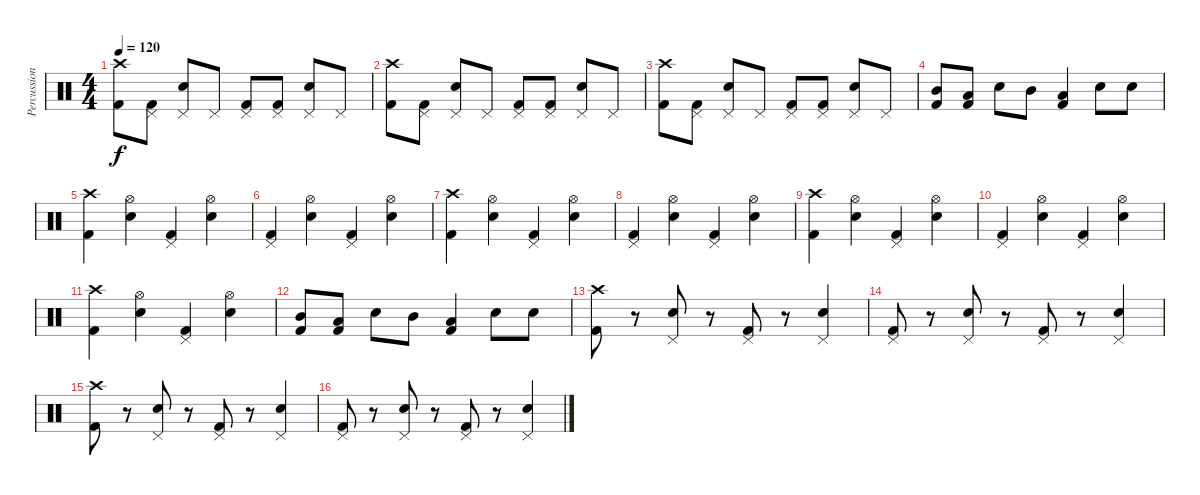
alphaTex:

\track ("Percussions" "Percussion") {instrument percussion}
\staff {score}
\articulation defaults
\ts (4 4)
\tempo 120
\clef neutral
\ks c
("Crash high (hit)" "Kick (hit) 2").8{dy f} ("Pedal Hi-Hat (hit)" "Kick (hit) 2").8 ("Pedal Hi-Hat (hit)" "Snare (hit) 2").8 "Pedal Hi-Hat (hit)".8 ("Pedal Hi-Hat (hit)" "Kick (hit) 2").8 ("Pedal Hi-Hat (hit)" "Kick (hit) 2").8 ("Pedal Hi-Hat (hit)" "Snare (hit) 2").8 "Pedal Hi-Hat (hit)".8 |
("Crash high (hit)" "Kick (hit) 2").8 ("Pedal Hi-Hat (hit)" "Kick (hit) 2").8 ("Pedal Hi-Hat (hit)" "Snare (hit) 2").8 "Pedal Hi-Hat (hit)".8 ("Pedal Hi-Hat (hit)" "Kick (hit) 2").8 ("Pedal Hi-Hat (hit)" "Kick (hit) 2").8 ("Pedal Hi-Hat (hit)" "Snare (hit) 2").8 "Pedal Hi-Hat (hit)".8 |
("Crash high (hit)" "Kick (hit) 2").8 ("Pedal Hi-Hat (hit)" "Kick (hit) 2").8 ("Pedal Hi-Hat (hit)" "Snare (hit) 2").8 "Pedal Hi-Hat (hit)".8 ("Pedal Hi-Hat (hit)" "Kick (hit) 2").8 ("Pedal Hi-Hat (hit)" "Kick (hit) 2").8 ("Pedal Hi-Hat (hit)" "Snare (hit) 2").8 "Pedal Hi-Hat (hit)".8 |
("Mid Tom (hit)" "Kick (hit) 2").8 ("Low Tom (hit)" "Kick (hit) 2").8 "Snare (hit) 2".8 "Mid Tom (hit)".8 ("Low Tom (hit)" "Kick (hit) 2").4 "Snare (hit) 2".8 "Snare (hit) 2".8 |
("Crash high (hit)" "Kick (hit) 2").4 ("Hi-Hat (open)" "Snare (hit) 2").4 ("Pedal Hi-Hat (hit)" "Kick (hit) 2").4 ("Hi-Hat (open)" "Snare (hit) 2").4 |
("Pedal Hi-Hat (hit)" "Kick (hit) 2").4 ("Hi-Hat (open)" "Snare (hit) 2").4 ("Pedal Hi-Hat (hit)" "Kick (hit) 2").4 ("Hi-Hat (open)" "Snare (hit) 2").4 |
("Crash high (hit)" "Kick (hit) 2").4 ("Hi-Hat (open)" "Snare (hit) 2").4 ("Pedal Hi-Hat (hit)" "Kick (hit) 2").4 ("Hi-Hat (open)" "Snare (hit) 2").4 |
("Pedal Hi-Hat (hit)" "Kick (hit) 2").4 ("Hi-Hat (open)" "Snare (hit) 2").4 ("Pedal Hi-Hat (hit)" "Kick (hit) 2").4 ("Hi-Hat (open)" "Snare (hit) 2").4 |
("Crash high (hit)" "Kick (hit) 2").4 ("Hi-Hat (open)" "Snare (hit) 2").4 ("Pedal Hi-Hat (hit)" "Kick (hit) 2").4 ("Hi-Hat (open)" "Snare (hit) 2").4 |
("Pedal Hi-Hat (hit)" "Kick (hit) 2").4 ("Hi-Hat (open)" "Snare (hit) 2").4 ("Pedal Hi-Hat (hit)" "Kick (hit) 2").4 ("Hi-Hat (open)" "Snare (hit) 2").4 |
("Crash high (hit)" "Kick (hit) 2").4 ("Hi-Hat (open)" "Snare (hit) 2").4 ("Pedal Hi-Hat (hit)" "Kick (hit) 2").4 ("Hi-Hat (open)" "Snare (hit) 2").4 |
("Mid Tom (hit)" "Kick (hit) 2").8 ("Low Tom (hit)" "Kick (hit) 2").8 "Snare (hit) 2".8 "Mid Tom (hit)".8 ("Low Tom (hit)" "Kick (hit) 2").4 "Snare (hit) 2".8 "Snare (hit) 2".8 |
("Crash high (hit)" "Kick (hit) 2").8 r.8 ("Pedal Hi-Hat (hit)" "Snare (hit) 2").8 r.8 ("Pedal Hi-Hat (hit)" "Kick (hit) 2").8 r.8 ("Pedal Hi-Hat (hit)" "Snare (hit) 2").4 |
("Pedal Hi-Hat (hit)" "Kick (hit) 2").8 r.8 ("Pedal Hi-Hat (hit)" "Snare (hit) 2").8 r.8 ("Pedal Hi-Hat (hit)" "Kick (hit) 2").8 r.8 ("Pedal Hi-Hat (hit)" "Snare (hit) 2").4 |
("Crash high (hit)" "Kick (hit) 2").8 r.8 ("Pedal Hi-Hat (hit)" "Snare (hit) 2").8 r.8 ("Pedal Hi-Hat (hit)" "Kick (hit) 2").8 r.8 ("Pedal Hi-Hat (hit)" "Snare (hit) 2").4 |
("Pedal Hi-Hat (hit)" "Kick (hit) 2").8 r.8 ("Pedal Hi-Hat (hit)" "Snare (hit) 2").8 r.8 ("Pedal Hi-Hat (hit)" "Kick (hit) 2").8 r.8 ("Pedal Hi-Hat (hit)" "Snare (hit) 2").4
